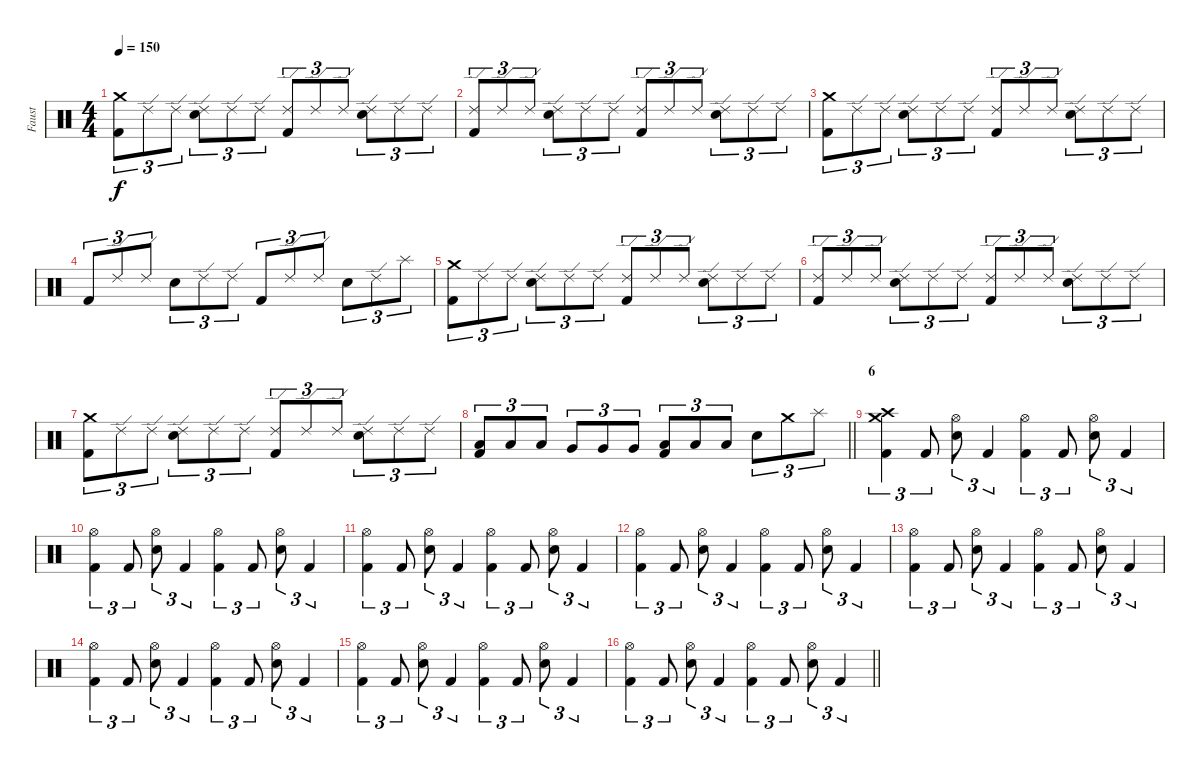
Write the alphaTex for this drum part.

\track ("Faust" "Faust") {instrument percussion}
\staff {score}
\articulation defaults
\ts (4 4)
\section ("" "")
\tempo 150
\clef neutral
\ks c
("Crash medium (hit)" "Kick (hit) 2").8{tu (3 2) dy f} "Ride (edge) 2".8{tu (3 2)} "Ride (edge) 2".8{tu (3 2)} ("Ride (edge) 2" "Electric Snare (hit)").8{tu (3 2)} "Ride (edge) 2".8{tu (3 2)} "Ride (edge) 2".8{tu (3 2)} ("Ride (edge) 2" "Kick (hit) 2").8{tu (3 2)} "Ride (edge) 2".8{tu (3 2)} "Ride (edge) 2".8{tu (3 2)} ("Ride (edge) 2" "Electric Snare (hit)").8{tu (3 2)} "Ride (edge) 2".8{tu (3 2)} "Ride (edge) 2".8{tu (3 2)} |
("Ride (edge) 2" "Kick (hit) 2").8{tu (3 2)} "Ride (edge) 2".8{tu (3 2)} "Ride (edge) 2".8{tu (3 2)} ("Ride (edge) 2" "Electric Snare (hit)").8{tu (3 2)} "Ride (edge) 2".8{tu (3 2)} "Ride (edge) 2".8{tu (3 2)} ("Ride (edge) 2" "Kick (hit) 2").8{tu (3 2)} "Ride (edge) 2".8{tu (3 2)} "Ride (edge) 2".8{tu (3 2)} ("Ride (edge) 2" "Electric Snare (hit)").8{tu (3 2)} "Ride (edge) 2".8{tu (3 2)} "Ride (edge) 2".8{tu (3 2)} |
("Crash medium (hit)" "Kick (hit) 2").8{tu (3 2)} "Ride (edge) 2".8{tu (3 2)} "Ride (edge) 2".8{tu (3 2)} ("Ride (edge) 2" "Electric Snare (hit)").8{tu (3 2)} "Ride (edge) 2".8{tu (3 2)} "Ride (edge) 2".8{tu (3 2)} ("Ride (edge) 2" "Kick (hit) 2").8{tu (3 2)} "Ride (edge) 2".8{tu (3 2)} "Ride (edge) 2".8{tu (3 2)} ("Ride (edge) 2" "Electric Snare (hit)").8{tu (3 2)} "Ride (edge) 2".8{tu (3 2)} "Ride (edge) 2".8{tu (3 2)} |
"Kick (hit) 2".8{tu (3 2)} "Ride (edge) 2".8{tu (3 2)} "Ride (edge) 2".8{tu (3 2)} "Electric Snare (hit)".8{tu (3 2)} "Ride (edge) 2".8{tu (3 2)} "Ride (edge) 2".8{tu (3 2)} "Kick (hit) 2".8{tu (3 2)} "Ride (edge) 2".8{tu (3 2)} "Ride (edge) 2".8{tu (3 2)} "Electric Snare (hit)".8{tu (3 2)} "Ride (edge) 2".8{tu (3 2)} "Splash (hit)".8{tu (3 2)} |
("Crash medium (hit)" "Kick (hit) 2").8{tu (3 2)} "Ride (edge) 2".8{tu (3 2)} "Ride (edge) 2".8{tu (3 2)} ("Ride (edge) 2" "Electric Snare (hit)").8{tu (3 2)} "Ride (edge) 2".8{tu (3 2)} "Ride (edge) 2".8{tu (3 2)} ("Ride (edge) 2" "Kick (hit) 2").8{tu (3 2)} "Ride (edge) 2".8{tu (3 2)} "Ride (edge) 2".8{tu (3 2)} ("Ride (edge) 2" "Electric Snare (hit)").8{tu (3 2)} "Ride (edge) 2".8{tu (3 2)} "Ride (edge) 2".8{tu (3 2)} |
("Ride (edge) 2" "Kick (hit) 2").8{tu (3 2)} "Ride (edge) 2".8{tu (3 2)} "Ride (edge) 2".8{tu (3 2)} ("Ride (edge) 2" "Electric Snare (hit)").8{tu (3 2)} "Ride (edge) 2".8{tu (3 2)} "Ride (edge) 2".8{tu (3 2)} ("Ride (edge) 2" "Kick (hit) 2").8{tu (3 2)} "Ride (edge) 2".8{tu (3 2)} "Ride (edge) 2".8{tu (3 2)} ("Ride (edge) 2" "Electric Snare (hit)").8{tu (3 2)} "Ride (edge) 2".8{tu (3 2)} "Ride (edge) 2".8{tu (3 2)} |
("Crash medium (hit)" "Kick (hit) 2").8{tu (3 2)} "Ride (edge) 2".8{tu (3 2)} "Ride (edge) 2".8{tu (3 2)} ("Ride (edge) 2" "Electric Snare (hit)").8{tu (3 2)} "Ride (edge) 2".8{tu (3 2)} "Ride (edge) 2".8{tu (3 2)} ("Ride (edge) 2" "Kick (hit) 2").8{tu (3 2)} "Ride (edge) 2".8{tu (3 2)} "Ride (edge) 2".8{tu (3 2)} ("Ride (edge) 2" "Electric Snare (hit)").8{tu (3 2)} "Ride (edge) 2".8{tu (3 2)} "Ride (edge) 2".8{tu (3 2)} |
\barLineRight lightlight
("Low Tom (hit)" "Kick (hit) 2").8{tu (3 2)} "Low Tom (hit)".8{tu (3 2)} "Low Tom (hit)".8{tu (3 2)} "Very Low Tom (hit)".8{tu (3 2)} "Very Low Tom (hit)".8{tu (3 2)} "Very Low Tom (hit)".8{tu (3 2)} ("Low Floor Tom (hit)" "Kick (hit) 2").8{tu (3 2)} "Low Floor Tom (hit)".8{tu (3 2)} "Low Floor Tom (hit)".8{tu (3 2)} "Electric Snare (hit)".8{tu (3 2)} "Crash medium (hit)".8{tu (3 2)} "Splash (hit)".8{tu (3 2)} |
\section ("" "6")
("Crash high (hit)" "Crash medium (hit)" "Kick (hit) 2").4{tu (3 2)} "Kick (hit) 2".8{tu (3 2)} ("Hi-Hat (open)" "Electric Snare (hit)").8{tu (3 2)} "Kick (hit) 2".4{tu (3 2)} ("Hi-Hat (open)" "Kick (hit) 2").4{tu (3 2)} "Kick (hit) 2".8{tu (3 2)} ("Hi-Hat (open)" "Electric Snare (hit)").8{tu (3 2)} "Kick (hit) 2".4{tu (3 2)} |
("Hi-Hat (open)" "Kick (hit) 2").4{tu (3 2)} "Kick (hit) 2".8{tu (3 2)} ("Hi-Hat (open)" "Electric Snare (hit)").8{tu (3 2)} "Kick (hit) 2".4{tu (3 2)} ("Hi-Hat (open)" "Kick (hit) 2").4{tu (3 2)} "Kick (hit) 2".8{tu (3 2)} ("Hi-Hat (open)" "Electric Snare (hit)").8{tu (3 2)} "Kick (hit) 2".4{tu (3 2)} |
("Hi-Hat (open)" "Kick (hit) 2").4{tu (3 2)} "Kick (hit) 2".8{tu (3 2)} ("Hi-Hat (open)" "Electric Snare (hit)").8{tu (3 2)} "Kick (hit) 2".4{tu (3 2)} ("Hi-Hat (open)" "Kick (hit) 2").4{tu (3 2)} "Kick (hit) 2".8{tu (3 2)} ("Hi-Hat (open)" "Electric Snare (hit)").8{tu (3 2)} "Kick (hit) 2".4{tu (3 2)} |
("Hi-Hat (open)" "Kick (hit) 2").4{tu (3 2)} "Kick (hit) 2".8{tu (3 2)} ("Hi-Hat (open)" "Electric Snare (hit)").8{tu (3 2)} "Kick (hit) 2".4{tu (3 2)} ("Hi-Hat (open)" "Kick (hit) 2").4{tu (3 2)} "Kick (hit) 2".8{tu (3 2)} ("Hi-Hat (open)" "Electric Snare (hit)").8{tu (3 2)} "Kick (hit) 2".4{tu (3 2)} |
("Hi-Hat (open)" "Kick (hit) 2").4{tu (3 2)} "Kick (hit) 2".8{tu (3 2)} ("Hi-Hat (open)" "Electric Snare (hit)").8{tu (3 2)} "Kick (hit) 2".4{tu (3 2)} ("Hi-Hat (open)" "Kick (hit) 2").4{tu (3 2)} "Kick (hit) 2".8{tu (3 2)} ("Hi-Hat (open)" "Electric Snare (hit)").8{tu (3 2)} "Kick (hit) 2".4{tu (3 2)} |
("Hi-Hat (open)" "Kick (hit) 2").4{tu (3 2)} "Kick (hit) 2".8{tu (3 2)} ("Hi-Hat (open)" "Electric Snare (hit)").8{tu (3 2)} "Kick (hit) 2".4{tu (3 2)} ("Hi-Hat (open)" "Kick (hit) 2").4{tu (3 2)} "Kick (hit) 2".8{tu (3 2)} ("Hi-Hat (open)" "Electric Snare (hit)").8{tu (3 2)} "Kick (hit) 2".4{tu (3 2)} |
("Hi-Hat (open)" "Kick (hit) 2").4{tu (3 2)} "Kick (hit) 2".8{tu (3 2)} ("Hi-Hat (open)" "Electric Snare (hit)").8{tu (3 2)} "Kick (hit) 2".4{tu (3 2)} ("Hi-Hat (open)" "Kick (hit) 2").4{tu (3 2)} "Kick (hit) 2".8{tu (3 2)} ("Hi-Hat (open)" "Electric Snare (hit)").8{tu (3 2)} "Kick (hit) 2".4{tu (3 2)} |
\barLineRight lightlight
("Hi-Hat (open)" "Kick (hit) 2").4{tu (3 2)} "Kick (hit) 2".8{tu (3 2)} ("Hi-Hat (open)" "Electric Snare (hit)").8{tu (3 2)} "Kick (hit) 2".4{tu (3 2)} ("Hi-Hat (open)" "Kick (hit) 2").4{tu (3 2)} "Kick (hit) 2".8{tu (3 2)} ("Hi-Hat (open)" "Electric Snare (hit)").8{tu (3 2)} "Kick (hit) 2".4{tu (3 2)}
